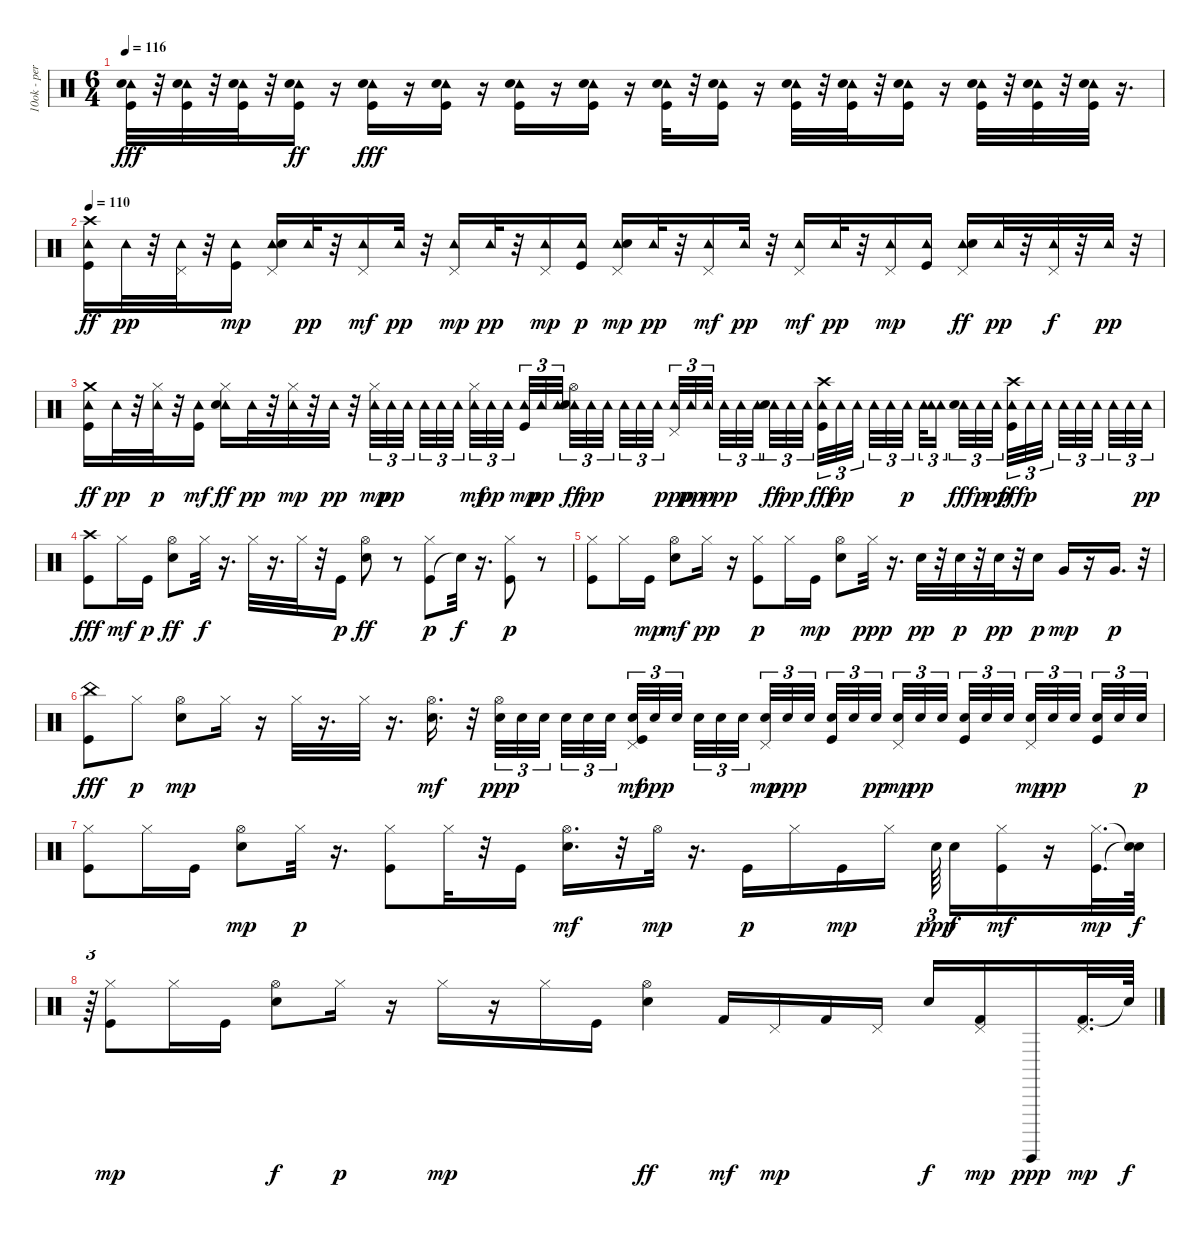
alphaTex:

\track ("10ok - percussioni" "10ok - per") {instrument percussion}
\staff {score}
\articulation defaults
\ts (6 4)
\tempo 116
\clef neutral
\ks c
("Tambourine (hit)" "Kick (hit)" "Snare (hit) 2").32{dy fff} r.32 ("Tambourine (hit)" "Kick (hit)" "Snare (hit) 2").32 r.32 ("Tambourine (hit)" "Kick (hit)" "Snare (hit) 2").32 r.32 ("Tambourine (hit)" "Kick (hit)" "Snare (hit) 2").16{dy ff} r.16 ("Tambourine (hit)" "Kick (hit)" "Snare (hit) 2").16{dy fff} r.16 ("Tambourine (hit)" "Kick (hit)" "Snare (hit) 2").16 r.16 ("Tambourine (hit)" "Kick (hit)" "Snare (hit) 2").16 r.16 ("Tambourine (hit)" "Kick (hit)" "Snare (hit) 2").16 r.16 ("Tambourine (hit)" "Kick (hit)" "Snare (hit) 2").32 r.32 ("Tambourine (hit)" "Kick (hit)" "Snare (hit) 2").16 r.16 ("Tambourine (hit)" "Kick (hit)" "Snare (hit) 2").32 r.32 ("Tambourine (hit)" "Kick (hit)" "Snare (hit) 2").32 r.32 ("Tambourine (hit)" "Kick (hit)" "Snare (hit) 2").16 r.16 ("Tambourine (hit)" "Kick (hit)" "Snare (hit) 2").32 r.32 ("Tambourine (hit)" "Kick (hit)" "Snare (hit) 2").32 r.32 ("Tambourine (hit)" "Kick (hit)" "Snare (hit) 2").32 r.16{d} |
\tempo 110
("Tambourine (hit)" "Crash high (hit)" "Kick (hit)").16{dy ff} "Tambourine (hit)".32{dy pp} r.32 ("Tambourine (hit)" "Pedal Hi-Hat (hit)").32 r.32 ("Tambourine (hit)" "Kick (hit)").16{dy mp} ("Tambourine (hit)" "Pedal Hi-Hat (hit)" "Snare (hit) 2").16 "Tambourine (hit)".32{dy pp} r.32 ("Tambourine (hit)" "Pedal Hi-Hat (hit)").16{dy mf} "Tambourine (hit)".32{dy pp} r.32 ("Tambourine (hit)" "Pedal Hi-Hat (hit)").16{dy mp} "Tambourine (hit)".32{dy pp} r.32 ("Tambourine (hit)" "Pedal Hi-Hat (hit)").16{dy mp} ("Tambourine (hit)" "Kick (hit)").16{dy p} ("Tambourine (hit)" "Pedal Hi-Hat (hit)" "Snare (hit) 2").16{dy mp} "Tambourine (hit)".32{dy pp} r.32 ("Tambourine (hit)" "Pedal Hi-Hat (hit)").16{dy mf} "Tambourine (hit)".32{dy pp} r.32 ("Tambourine (hit)" "Pedal Hi-Hat (hit)").16{dy mf} "Tambourine (hit)".32{dy pp} r.32 ("Tambourine (hit)" "Pedal Hi-Hat (hit)").16{dy mp} ("Tambourine (hit)" "Kick (hit)").16 ("Tambourine (hit)" "Pedal Hi-Hat (hit)" "Snare (hit) 2").16{dy ff} "Tambourine (hit)".32{dy pp} r.32 ("Tambourine (hit)" "Pedal Hi-Hat (hit)").32{dy f} r.32 "Tambourine (hit)".32{dy pp} r.32 |
("Tambourine (hit)" "Crash medium (hit)" "Kick (hit)").16{dy ff} "Tambourine (hit)".32{dy pp} r.32 ("Tambourine (hit)" "Hi-Hat (closed)").32{dy p} r.32 ("Tambourine (hit)" "Kick (hit)").16{dy mf} ("Tambourine (hit)" "Hi-Hat (closed)" "Snare (hit) 2").16{dy ff} "Tambourine (hit)".32{dy pp} r.32 ("Tambourine (hit)" "Hi-Hat (closed)").32{dy mp} r.32 "Tambourine (hit)".32{dy pp} r.32 ("Tambourine (hit)" "Hi-Hat (closed)").32{tu (3 2) dy mp} "Tambourine (hit)".32{tu (3 2) dy pp} "Tambourine (hit)".32{tu (3 2) beam splitsecondary} "Tambourine (hit)".32{tu (3 2)} "Tambourine (hit)".32{tu (3 2)} "Tambourine (hit)".32{tu (3 2) beam splitsecondary} ("Tambourine (hit)" "Hi-Hat (closed)").32{tu (3 2) dy mf} "Tambourine (hit)".32{tu (3 2) dy pp} "Tambourine (hit)".32{tu (3 2) beam splitsecondary} ("Tambourine (hit)" "Kick (hit)").32{tu (3 2) dy mp} "Tambourine (hit)".32{tu (3 2) dy pp} "Tambourine (hit)".32{tu (3 2)} ("Tambourine (hit)" "Hi-Hat (open)" "Snare (hit) 2").32{tu (3 2) dy ff} "Tambourine (hit)".32{tu (3 2) dy pp} "Tambourine (hit)".32{tu (3 2) beam splitsecondary} "Tambourine (hit)".32{tu (3 2)} "Tambourine (hit)".32{tu (3 2)} "Tambourine (hit)".32{tu (3 2) beam splitsecondary} ("Tambourine (hit)" "Pedal Hi-Hat (hit)").32{tu (3 2) dy ppp} "Tambourine (hit)".32{tu (3 2) dy pp} "Tambourine (hit)".32{tu (3 2) dy p beam splitsecondary} "Tambourine (hit)".32{tu (3 2) dy pp} "Tambourine (hit)".32{tu (3 2)} "Tambourine (hit)".32{tu (3 2) beam splitsecondary} ("Tambourine (hit)" "Snare (hit) 2").32{tu (3 2) dy ff} "Tambourine (hit)".32{tu (3 2) dy pp} "Tambourine (hit)".32{tu (3 2) beam splitsecondary} ("Tambourine (hit)" "Kick (hit)" "Crash high (hit)").32{tu (3 2) dy fff} "Tambourine (hit)".32{tu (3 2) dy pp} "Tambourine (hit)".32{tu (3 2) beam splitsecondary} "Tambourine (hit)".32{tu (3 2)} "Tambourine (hit)".32{tu (3 2)} "Tambourine (hit)".32{tu (3 2) dy p beam splitsecondary} "Tambourine (hit)".32{tu (3 2)} ("Tambourine (hit)" "Tambourine (hit)").16{tu (3 2) beam splitsecondary} ("Tambourine (hit)" "Snare (hit) 2").32{tu (3 2) dy fff} "Tambourine (hit)".32{tu (3 2) dy p} "Tambourine (hit)".32{tu (3 2) dy pp beam splitsecondary} ("Tambourine (hit)" "Crash high (hit)" "Kick (hit)").32{tu (3 2) dy fff} "Tambourine (hit)".32{tu (3 2) dy p} "Tambourine (hit)".32{tu (3 2) beam splitsecondary} "Tambourine (hit)".32{tu (3 2)} "Tambourine (hit)".32{tu (3 2)} "Tambourine (hit)".32{tu (3 2) beam splitsecondary} "Tambourine (hit)".32{tu (3 2)} "Tambourine (hit)".32{tu (3 2)} "Tambourine (hit)".32{tu (3 2) dy pp} |
("Kick (hit)" "Crash high (hit)").8{dy fff} "Hi-Hat (closed)".16{dy mf} "Kick (hit)".16{dy p} ("Hi-Hat (open)" "Snare (hit) 2").8{dy ff} "Hi-Hat (closed)".32{dy f} r.16{d} "Hi-Hat (closed)".32 r.16{d} "Hi-Hat (closed)".32 r.32 "Kick (hit)".16{dy p} ("Hi-Hat (open)" "Snare (hit) 2").8{dy ff} r.8 ("Kick (hit)" "Hi-Hat (closed)").8{dy p} "Snare (hit)"{t}.32{dy f} r.16{d} ("Hi-Hat (closed)" "Kick (hit)").8{dy p} r.8 |
("Kick (hit)" "Hi-Hat (closed)").8 "Hi-Hat (closed)".16 "Kick (hit)".16{dy mp} ("Snare (hit) 2" "Hi-Hat (open)").8{dy mf} "Hi-Hat (closed)".16{dy pp} r.16 ("Kick (hit)" "Hi-Hat (closed)").8{dy p} "Hi-Hat (closed)".16 "Kick (hit)".16{dy mp} ("Snare (hit) 2" "Hi-Hat (open)").8 "Hi-Hat (closed)".32{dy ppp} r.16{d} "Snare (hit) 2".32{dy pp} r.32 "Snare (hit) 2".32{dy p} r.32 "Snare (hit) 2".32{dy pp} r.32 "Snare (hit) 2".16{dy p} "Very Low Tom (hit)".16{dy mp} r.16 "Very Low Tom (hit)".16{d dy p} r.32 |
("Kick (hit)" "China (hit)").8{dy fff} "Hi-Hat (closed)".8{dy p} ("Snare (hit) 2" "Hi-Hat (open)").8{dy mp} "Hi-Hat (closed)".16 r.16 "Hi-Hat (closed)".32 r.16{d} "Hi-Hat (closed)".32 r.16{d} ("Snare (hit) 2" "Hi-Hat (open)").16{d dy mf} r.32 ("Electric Snare (hit)" "Hi-Hat (open)").32{tu (3 2) dy ppp} "Electric Snare (hit)".32{tu (3 2)} "Electric Snare (hit)".32{tu (3 2) beam splitsecondary} "Electric Snare (hit)".32{tu (3 2)} "Electric Snare (hit)".32{tu (3 2)} "Electric Snare (hit)".32{tu (3 2) beam splitsecondary} ("Kick (hit)" "Electric Snare (hit)" "Pedal Hi-Hat (hit)").32{tu (3 2) dy mf} "Electric Snare (hit)".32{tu (3 2) dy ppp} "Electric Snare (hit)".32{tu (3 2) beam splitsecondary} "Electric Snare (hit)".32{tu (3 2)} "Electric Snare (hit)".32{tu (3 2)} "Electric Snare (hit)".32{tu (3 2) beam splitsecondary} ("Electric Snare (hit)" "Pedal Hi-Hat (hit)").32{tu (3 2) dy mp} "Electric Snare (hit)".32{tu (3 2) dy ppp} "Electric Snare (hit)".32{tu (3 2) beam splitsecondary} ("Kick (hit)" "Electric Snare (hit)").32{tu (3 2)} "Electric Snare (hit)".32{tu (3 2)} "Electric Snare (hit)".32{tu (3 2) dy pp beam splitsecondary} ("Electric Snare (hit)" "Pedal Hi-Hat (hit)").32{tu (3 2) dy mp} "Electric Snare (hit)".32{tu (3 2) dy pp} "Electric Snare (hit)".32{tu (3 2) beam splitsecondary} ("Kick (hit)" "Electric Snare (hit)").32{tu (3 2)} "Electric Snare (hit)".32{tu (3 2)} "Electric Snare (hit)".32{tu (3 2) beam splitsecondary} ("Electric Snare (hit)" "Pedal Hi-Hat (hit)").32{tu (3 2) dy mp} "Electric Snare (hit)".32{tu (3 2) dy pp} "Electric Snare (hit)".32{tu (3 2) beam splitsecondary} ("Kick (hit)" "Electric Snare (hit)").32{tu (3 2)} "Electric Snare (hit)".32{tu (3 2)} "Electric Snare (hit)".32{tu (3 2) dy p} |
("Hi-Hat (closed)" "Kick (hit)").8 "Hi-Hat (closed)".16 "Kick (hit)".16 ("Hi-Hat (open)" "Snare (hit) 2").8{dy mp} "Hi-Hat (closed)".32{dy p} r.16{d} ("Hi-Hat (closed)" "Kick (hit)").8 "Hi-Hat (closed)".32 r.32 "Kick (hit)".16 ("Hi-Hat (open)" "Snare (hit) 2").16{d dy mf} r.32 "Hi-Hat (open)".32{dy mp} r.16{d} "Kick (hit)".16{dy p} "Hi-Hat (closed)".16 "Kick (hit)".16{dy mp} "Hi-Hat (closed)".16{beam splitsecondary} "Snare (hit) 2".64{tu (3 2) dy ppp beam splitsecondary} "Snare (hit) 2".16{dy f} ("Hi-Hat (closed)" "Kick (hit)").16{dy mf} r.16 ("Hi-Hat (closed)" "Kick (hit)").32{d dy mp} ("Snare (hit)"{t} "Snare (hit)"{t}).64{dy f} |
r.64{tu (3 2)} ("Hi-Hat (closed)" "Kick (hit)").8{dy mp} "Hi-Hat (closed)".16 "Kick (hit)".16 ("Hi-Hat (open)" "Snare (hit) 2").8{dy f} "Hi-Hat (closed)".16{dy p} r.16 "Hi-Hat (closed)".16{dy mp} r.16 "Hi-Hat (closed)".16 "Kick (hit)".16 ("Hi-Hat (open)" "Snare (hit) 2").4{dy ff} "Kick (hit) 2".16{dy mf} "Pedal Hi-Hat (hit)".16{dy mp} "Kick (hit) 2".16 "Pedal Hi-Hat (hit)".16 "Snare (hit) 2".16{dy f} ("Kick (hit) 2" "Pedal Hi-Hat (hit)").16{dy mp} "Guiro (hit)".16{dy ppp} ("Kick (hit) 2" "Pedal Hi-Hat (hit)").32{d dy mp} "Snare (hit)"{t}.64{dy f}
